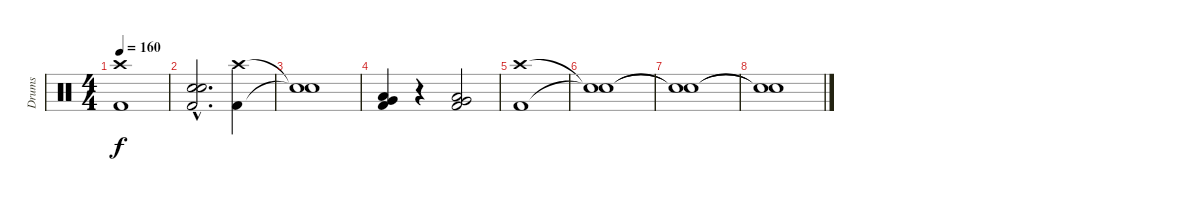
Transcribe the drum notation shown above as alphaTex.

\track ("Drums" "Drums") {instrument percussion}
\staff {score}
\articulation defaults
\ts (4 4)
\tempo 160
\clef neutral
\ks c
("Crash high (hit)" "Kick (hit) 2").1{dy f} |
("Electric Snare (hit)"{hac} "Electric Snare (hit)"{hac} "Kick (hit) 2"{hac}).2{d bd 120} ("Crash high (hit)" "Kick (hit) 2").4 |
("Snare (hit)"{t} "Snare (hit)"{t}).1 |
("Very Low Tom (hit)" "Low Floor Tom (hit)" "Kick (hit) 2").4{bd 60} r.4 ("Very Low Tom (hit)" "Low Floor Tom (hit)" "Kick (hit) 2").2{bd 60} |
("Crash high (hit)" "Kick (hit) 2").1 |
("Snare (hit)"{t} "Snare (hit)"{t}).1 |
("Snare (hit)"{t} "Snare (hit)"{t}).1 |
("Snare (hit)"{t} "Snare (hit)"{t}).1
